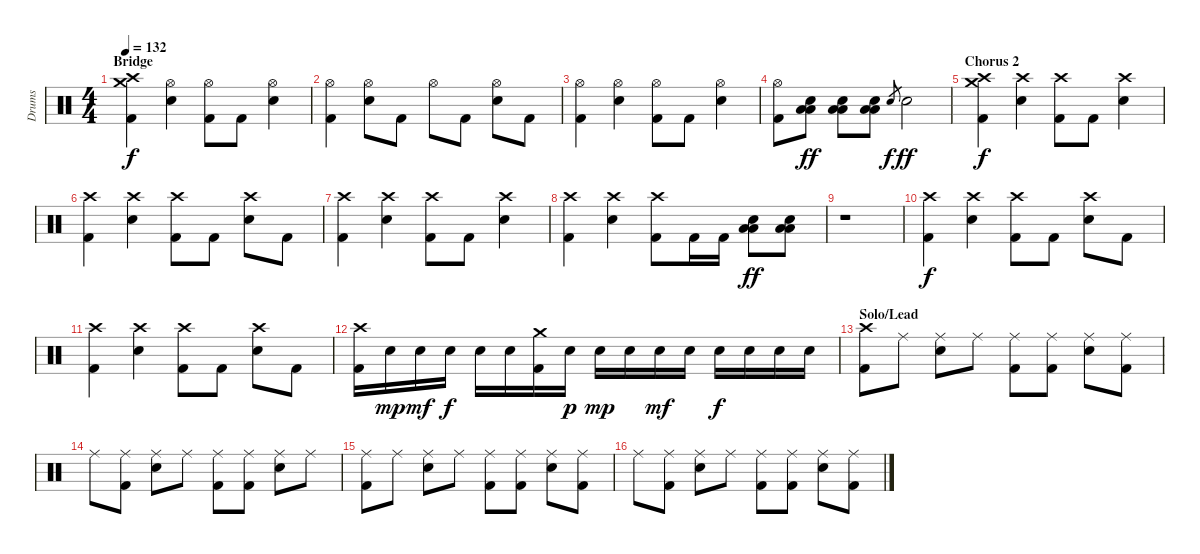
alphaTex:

\track ("Drums" "Drums") {instrument percussion}
\staff {score}
\articulation defaults
\ts (4 4)
\section ("" "Bridge")
\tempo 132
\clef neutral
\ks c
("Crash medium (hit)" "Crash high (hit)" "Kick (hit) 2").4{dy f} ("Hi-Hat (open)" "Electric Snare (hit)").4 ("Hi-Hat (open)" "Kick (hit) 2").8 "Kick (hit) 2".8 ("Hi-Hat (open)" "Electric Snare (hit)").4 |
("Hi-Hat (open)" "Kick (hit) 2").4 ("Hi-Hat (open)" "Electric Snare (hit)").8 "Kick (hit) 2".8 "Hi-Hat (open)".8 "Kick (hit) 2".8 ("Hi-Hat (open)" "Electric Snare (hit)").8 "Kick (hit) 2".8 |
("Hi-Hat (open)" "Kick (hit) 2").4 ("Hi-Hat (open)" "Electric Snare (hit)").4 ("Hi-Hat (open)" "Kick (hit) 2").8 "Kick (hit) 2".8 ("Hi-Hat (open)" "Electric Snare (hit)").4 |
("Hi-Hat (open)" "Kick (hit) 2").8 ("Low Tom (hit)" "Low Floor Tom (hit)" "Electric Snare (hit)").8{dy ff} ("Low Tom (hit)" "Low Floor Tom (hit)" "Electric Snare (hit)").8 ("Low Tom (hit)" "Low Floor Tom (hit)" "Electric Snare (hit)").8 "Electric Snare (hit)"{h}.8{gr dy f} "Electric Snare (hit)".2{dy ff} |
\section ("" "Chorus 2")
("Crash medium (hit)" "Crash high (hit)" "Kick (hit) 2").4{dy f} ("Crash high (hit)" "Electric Snare (hit)").4 ("Crash high (hit)" "Kick (hit) 2").8 "Kick (hit) 2".8 ("Crash high (hit)" "Electric Snare (hit)").4 |
("Crash high (hit)" "Kick (hit) 2").4 ("Crash high (hit)" "Electric Snare (hit)").4 ("Crash high (hit)" "Kick (hit) 2").8 "Kick (hit) 2".8 ("Crash high (hit)" "Electric Snare (hit)").8 "Kick (hit) 2".8 |
("Crash high (hit)" "Kick (hit) 2").4 ("Crash high (hit)" "Electric Snare (hit)").4 ("Crash high (hit)" "Kick (hit) 2").8 "Kick (hit) 2".8 ("Crash high (hit)" "Electric Snare (hit)").4 |
("Crash high (hit)" "Kick (hit) 2").4 ("Crash high (hit)" "Electric Snare (hit)").4 ("Crash high (hit)" "Kick (hit) 2").8 "Kick (hit) 2".16 "Kick (hit) 2".16 ("Low Tom (hit)" "Low Floor Tom (hit)" "Electric Snare (hit)").8{dy ff} ("Low Tom (hit)" "Low Floor Tom (hit)" "Electric Snare (hit)").8 |
r.1 |
("Crash high (hit)" "Kick (hit) 2").4{dy f} ("Crash high (hit)" "Electric Snare (hit)").4 ("Crash high (hit)" "Kick (hit) 2").8 "Kick (hit) 2".8 ("Crash high (hit)" "Electric Snare (hit)").8 "Kick (hit) 2".8 |
("Crash high (hit)" "Kick (hit) 2").4 ("Crash high (hit)" "Electric Snare (hit)").4 ("Crash high (hit)" "Kick (hit) 2").8 "Kick (hit) 2".8 ("Crash high (hit)" "Electric Snare (hit)").8 "Kick (hit) 2".8 |
("Crash high (hit)" "Kick (hit) 2").16 "Electric Snare (hit)".16{dy mp} "Electric Snare (hit)".16{dy mf} "Electric Snare (hit)".16{dy f} "Electric Snare (hit)".16 "Electric Snare (hit)".16 ("Crash medium (hit)" "Kick (hit) 2").16 "Electric Snare (hit)".16{dy p} "Electric Snare (hit)".16{dy mp} "Electric Snare (hit)".16 "Electric Snare (hit)".16{dy mf} "Electric Snare (hit)".16 "Electric Snare (hit)".16{dy f} "Electric Snare (hit)".16 "Electric Snare (hit)".16 "Electric Snare (hit)".16 |
\section ("" "Solo/Lead")
("Crash high (hit)" "Kick (hit) 2").8 "Ride (middle)".8 ("Ride (middle)" "Electric Snare (hit)").8 "Ride (middle)".8 ("Ride (middle)" "Kick (hit) 2").8 ("Ride (middle)" "Kick (hit) 2").8 ("Ride (middle)" "Electric Snare (hit)").8 ("Ride (middle)" "Kick (hit) 2").8 |
"Ride (middle)".8 ("Ride (middle)" "Kick (hit) 2").8 ("Ride (middle)" "Electric Snare (hit)").8 "Ride (middle)".8 ("Ride (middle)" "Kick (hit) 2").8 ("Ride (middle)" "Kick (hit) 2").8 ("Ride (middle)" "Electric Snare (hit)").8 "Ride (middle)".8 |
("Ride (middle)" "Kick (hit) 2").8 "Ride (middle)".8 ("Ride (middle)" "Electric Snare (hit)").8 "Ride (middle)".8 ("Ride (middle)" "Kick (hit) 2").8 ("Ride (middle)" "Kick (hit) 2").8 ("Ride (middle)" "Electric Snare (hit)").8 ("Ride (middle)" "Kick (hit) 2").8 |
"Ride (middle)".8 ("Ride (middle)" "Kick (hit) 2").8 ("Ride (middle)" "Electric Snare (hit)").8 "Ride (middle)".8 ("Ride (middle)" "Kick (hit) 2").8 ("Ride (middle)" "Kick (hit) 2").8 ("Ride (middle)" "Electric Snare (hit)").8 ("Ride (middle)" "Kick (hit) 2").8
